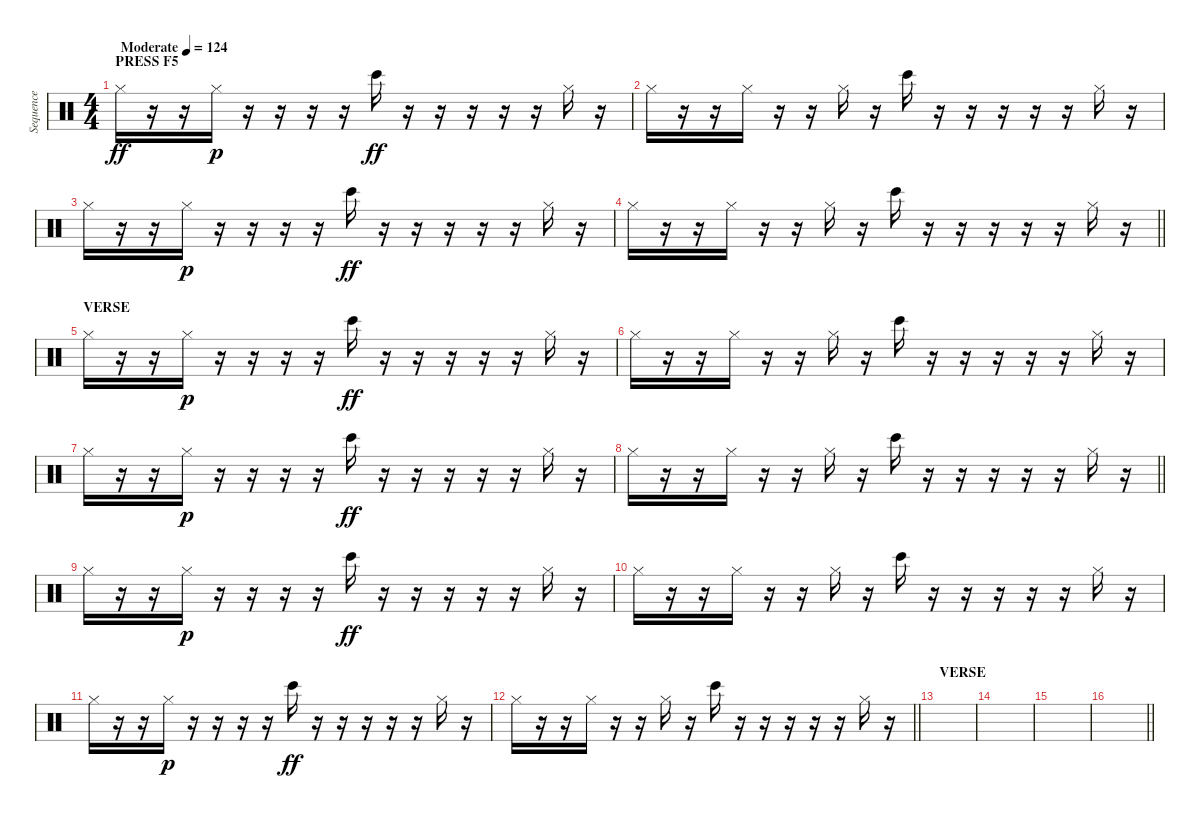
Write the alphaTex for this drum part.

\track ("Sequence" "Sequence") {instrument percussion}
\staff {score}
\articulation defaults
\ts (4 4)
\section ("" "PRESS F5")
\tempo (124 "Moderate")
\clef neutral
\ks c "Hi-Hat (closed)".16{dy ff}
r.16 r.16 "Hi-Hat (closed)".16{dy p} r.16 r.16 r.16 r.16 "Bongo High (hit)".16{dy ff} r.16 r.16 r.16 r.16 r.16 "Hi-Hat (closed)".16 r.16 |
"Hi-Hat (closed)".16 r.16 r.16 "Hi-Hat (closed)".16 r.16 r.16 "Hi-Hat (closed)".16 r.16 "Bongo High (hit)".16 r.16 r.16 r.16 r.16 r.16 "Hi-Hat (closed)".16 r.16 |
"Hi-Hat (closed)".16 r.16 r.16 "Hi-Hat (closed)".16{dy p} r.16 r.16 r.16 r.16 "Bongo High (hit)".16{dy ff} r.16 r.16 r.16 r.16 r.16 "Hi-Hat (closed)".16 r.16 |
\barLineRight lightlight "Hi-Hat (closed)".16
r.16 r.16 "Hi-Hat (closed)".16 r.16 r.16 "Hi-Hat (closed)".16 r.16 "Bongo High (hit)".16 r.16 r.16 r.16 r.16 r.16 "Hi-Hat (closed)".16 r.16 |
\section ("" "VERSE")
"Hi-Hat (closed)".16 r.16 r.16 "Hi-Hat (closed)".16{dy p} r.16 r.16 r.16 r.16 "Bongo High (hit)".16{dy ff} r.16 r.16 r.16 r.16 r.16 "Hi-Hat (closed)".16 r.16 |
"Hi-Hat (closed)".16 r.16 r.16 "Hi-Hat (closed)".16 r.16 r.16 "Hi-Hat (closed)".16 r.16 "Bongo High (hit)".16 r.16 r.16 r.16 r.16 r.16 "Hi-Hat (closed)".16 r.16 |
"Hi-Hat (closed)".16 r.16 r.16 "Hi-Hat (closed)".16{dy p} r.16 r.16 r.16 r.16 "Bongo High (hit)".16{dy ff} r.16 r.16 r.16 r.16 r.16 "Hi-Hat (closed)".16 r.16 |
\barLineRight lightlight "Hi-Hat (closed)".16
r.16 r.16 "Hi-Hat (closed)".16 r.16 r.16 "Hi-Hat (closed)".16 r.16 "Bongo High (hit)".16 r.16 r.16 r.16 r.16 r.16 "Hi-Hat (closed)".16 r.16 |
\section ("" "")
"Hi-Hat (closed)".16 r.16 r.16 "Hi-Hat (closed)".16{dy p} r.16 r.16 r.16 r.16 "Bongo High (hit)".16{dy ff} r.16 r.16 r.16 r.16 r.16 "Hi-Hat (closed)".16 r.16 |
"Hi-Hat (closed)".16 r.16 r.16 "Hi-Hat (closed)".16 r.16 r.16 "Hi-Hat (closed)".16 r.16 "Bongo High (hit)".16 r.16 r.16 r.16 r.16 r.16 "Hi-Hat (closed)".16 r.16 |
"Hi-Hat (closed)".16 r.16 r.16 "Hi-Hat (closed)".16{dy p} r.16 r.16 r.16 r.16 "Bongo High (hit)".16{dy ff} r.16 r.16 r.16 r.16 r.16 "Hi-Hat (closed)".16 r.16 |
\barLineRight lightlight "Hi-Hat (closed)".16
r.16 r.16 "Hi-Hat (closed)".16 r.16 r.16 "Hi-Hat (closed)".16 r.16 "Bongo High (hit)".16 r.16 r.16 r.16 r.16 r.16 "Hi-Hat (closed)".16 r.16 |
\section ("" "VERSE")
|
|
|
\barLineRight lightlight
